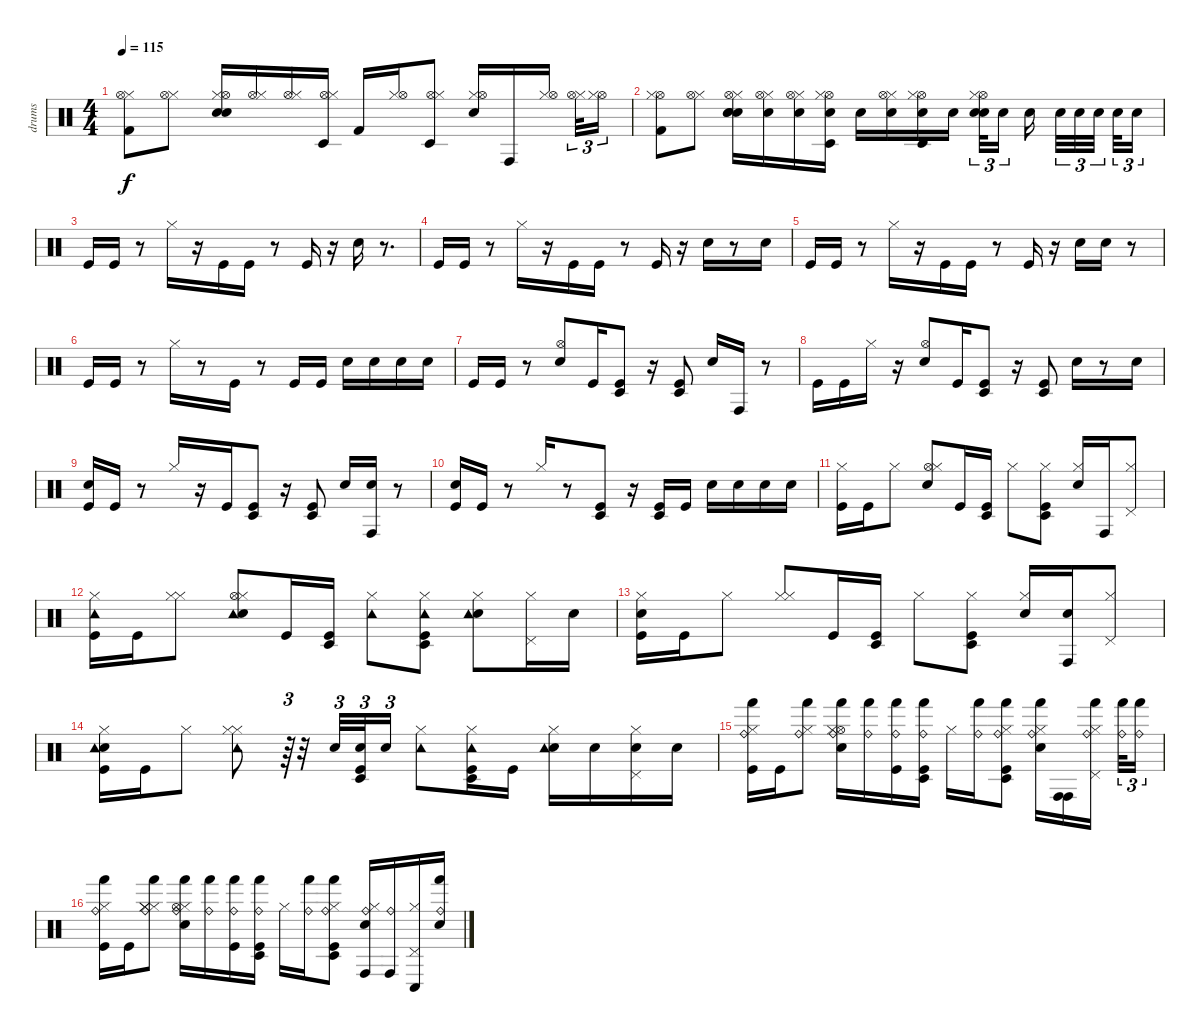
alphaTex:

\track ("drums" "drums") {instrument percussion}
\staff {score}
\articulation defaults
\ts (4 4)
\tempo 115
\clef neutral
\ks c
("Hi-Hat (closed)" "Hi-Hat (open)" "Kick (hit) 2").8{dy f} ("Hi-Hat (closed)" "Hi-Hat (open)").8 ("Hand Clap (hit)" "Snare (hit) 2" "Hi-Hat (closed)" "Hi-Hat (open)").16 ("Hi-Hat (open)" "Hi-Hat (closed)").16 ("Hi-Hat (open)" "Hi-Hat (closed)").16 ("Hi-Hat (open)" "Hi-Hat (closed)" "Timbale low (hit)").16 "Kick (hit) 2".16 ("Hi-Hat (closed)" "Hi-Hat (open)").16 ("Timbale low (hit)" "Hi-Hat (open)" "Hi-Hat (closed)").8 ("Hi-Hat (closed)" "Hand Clap (hit)" "Hi-Hat (open)").16 "Conga high (hit)".16 ("Hi-Hat (closed)" "Hi-Hat (open)").16 ("Hi-Hat (closed)" "Hi-Hat (open)").32{tu (3 2)} ("Hi-Hat (open)" "Hi-Hat (closed)").16{tu (3 2)} |
("Hi-Hat (open)" "Hi-Hat (closed)" "Kick (hit) 2").8 ("Hi-Hat (closed)" "Hi-Hat (open)").8 ("Electric Snare (hit)" "Hi-Hat (closed)" "Electric Snare (hit)" "Hi-Hat (open)" "Hand Clap (hit)").16 ("Hi-Hat (closed)" "Electric Snare (hit)" "Hi-Hat (open)").16 ("Hi-Hat (closed)" "Electric Snare (hit)" "Hi-Hat (open)").16 ("Hi-Hat (open)" "Electric Snare (hit)" "Hi-Hat (closed)" "Timbale low (hit)").16 "Electric Snare (hit)".16 ("Electric Snare (hit)" "Hi-Hat (closed)" "Hi-Hat (open)").16 ("Hi-Hat (open)" "Hi-Hat (closed)" "Electric Snare (hit)" "Timbale low (hit)").16 "Electric Snare (hit)".16 ("Hi-Hat (open)" "Hi-Hat (closed)" "Hand Clap (hit)" "Electric Snare (hit)").32{tu (3 2)} "Electric Snare (hit)".16{tu (3 2)} "Electric Snare (hit)".16 "Electric Snare (hit)".32{tu (3 2)} "Electric Snare (hit)".32{tu (3 2)} "Electric Snare (hit)".32{tu (3 2)} "Electric Snare (hit)".32{tu (3 2)} "Electric Snare (hit)".16{tu (3 2)} |
"Kick (hit)".16 "Kick (hit)".16 r.8 "Hi-Hat (closed)".16 r.16 "Kick (hit)".16 "Kick (hit)".16 r.8 "Kick (hit)".16 r.16 "Electric Snare (hit)".16 r.8{d} |
"Kick (hit)".16 "Kick (hit)".16 r.8 "Hi-Hat (closed)".16 r.16 "Kick (hit)".16 "Kick (hit)".16 r.8 "Kick (hit)".16 r.16 "Electric Snare (hit)".16 r.8 "Electric Snare (hit)".16 |
"Kick (hit)".16 "Kick (hit)".16 r.8 "Hi-Hat (closed)".16 r.16 "Kick (hit)".16 "Kick (hit)".16 r.8 "Kick (hit)".16 r.16 "Electric Snare (hit)".16 "Electric Snare (hit)".16 r.8 |
"Kick (hit)".16 "Kick (hit)".16 r.8 "Hi-Hat (closed)".16 r.8 "Kick (hit)".16 r.8 "Kick (hit)".16 "Kick (hit)".16 "Electric Snare (hit)".16 "Electric Snare (hit)".16 "Electric Snare (hit)".16 "Electric Snare (hit)".16 |
"Kick (hit)".16 "Kick (hit)".16 r.8 ("Hi-Hat (open)" "Electric Snare (hit)").8 "Kick (hit)".16 ("Kick (hit)" "Timbale low (hit)").8 r.16 ("Timbale low (hit)" "Kick (hit)").8 "Electric Snare (hit)".16 "Conga high (hit)".16 r.8 |
"Kick (hit)".16 "Kick (hit)".16 "Hi-Hat (closed)".16 r.16 ("Hi-Hat (open)" "Electric Snare (hit)").8 "Kick (hit)".16 ("Kick (hit)" "Timbale low (hit)").8 r.16 ("Kick (hit)" "Timbale low (hit)").8 "Electric Snare (hit)".16 r.8 "Electric Snare (hit)".16 |
("Electric Snare (hit)" "Kick (hit)").16 "Kick (hit)".16 r.8 "Hi-Hat (closed)".16 r.16 "Kick (hit)".16 ("Timbale low (hit)" "Kick (hit)").8 r.16 ("Kick (hit)" "Timbale low (hit)").8 "Electric Snare (hit)".16 ("Conga high (hit)" "Electric Snare (hit)").16 r.8 |
("Kick (hit)" "Electric Snare (hit)").16 "Kick (hit)".16 r.8 "Hi-Hat (closed)".16 r.8 ("Timbale low (hit)" "Kick (hit)").8 r.16 ("Kick (hit)" "Timbale low (hit)").16 "Kick (hit)".16 "Electric Snare (hit)".16 "Electric Snare (hit)".16 "Electric Snare (hit)".16 "Electric Snare (hit)".16 |
("Hi-Hat (closed)" "Kick (hit)").16 "Kick (hit)".16 "Hi-Hat (closed)".8 ("Electric Snare (hit)" "Hi-Hat (open)" "Hi-Hat (closed)").8 "Kick (hit)".16 ("Timbale low (hit)" "Kick (hit)").16 "Hi-Hat (closed)".8 ("Timbale low (hit)" "Hi-Hat (closed)" "Kick (hit)").8 ("Electric Snare (hit)" "Hi-Hat (closed)").16 "Conga high (hit)".16 ("Pedal Hi-Hat (hit)" "Hi-Hat (closed)").8 |
("Tambourine (hit)" "Kick (hit)" "Hi-Hat (closed)").16 "Kick (hit)".16 ("Hi-Hat (closed)" "Hi-Hat (closed)").8 ("Hi-Hat (open)" "Tambourine (hit)" "Electric Snare (hit)" "Hi-Hat (closed)").8 "Kick (hit)".16 ("Kick (hit)" "Timbale low (hit)").16 ("Tambourine (hit)" "Hi-Hat (closed)").8 ("Hi-Hat (closed)" "Kick (hit)" "Timbale low (hit)" "Tambourine (hit)").8 ("Electric Snare (hit)" "Hi-Hat (closed)" "Tambourine (hit)").8 ("Pedal Hi-Hat (hit)" "Hi-Hat (closed)").16 "Electric Snare (hit)".16 |
("Hi-Hat (closed)" "Electric Snare (hit)" "Kick (hit)").16 "Kick (hit)".16 "Hi-Hat (closed)".8 ("Hi-Hat (closed)" "Hi-Hat (closed)").8 "Kick (hit)".16 ("Kick (hit)" "Timbale low (hit)").16 "Hi-Hat (closed)".8 ("Hi-Hat (closed)" "Kick (hit)" "Timbale low (hit)").8 ("Electric Snare (hit)" "Hi-Hat (closed)").16 ("Conga high (hit)" "Electric Snare (hit)").16 ("Pedal Hi-Hat (hit)" "Hi-Hat (closed)").8 |
("Hi-Hat (closed)" "Kick (hit)" "Electric Snare (hit)" "Tambourine (hit)").16 "Kick (hit)".16 "Hi-Hat (closed)".8 ("Tambourine (hit)" "Hi-Hat (closed)" "Hi-Hat (closed)").8 r.64{tu (3 2)} r.32 "Electric Snare (hit)".32{tu (3 2)} ("Electric Snare (hit)" "Kick (hit)" "Timbale low (hit)").32{tu (3 2)} "Electric Snare (hit)".16{tu (3 2)} ("Tambourine (hit)" "Hi-Hat (closed)").8 ("Hi-Hat (closed)" "Tambourine (hit)" "Timbale low (hit)" "Kick (hit)").16 "Kick (hit)".16 ("Hi-Hat (closed)" "Electric Snare (hit)" "Tambourine (hit)").16 "Electric Snare (hit)".16 ("Pedal Hi-Hat (hit)" "Hi-Hat (closed)" "Electric Snare (hit)").16 "Electric Snare (hit)".16 |
("Kick (hit)" "Hi-Hat (closed)" "Ride (bell)" "Hand (hit)").16 "Kick (hit)".16 ("Hand (hit)" "Hi-Hat (closed)" "Ride (bell)").8 ("Hi-Hat (open)" "Hand (hit)" "Ride (bell)" "Electric Snare (hit)" "Hi-Hat (closed)").16 ("Hand (hit)" "Ride (bell)").16 ("Hand (hit)" "Kick (hit)" "Ride (bell)").16 ("Hand (hit)" "Ride (bell)" "Kick (hit)" "Timbale low (hit)").16 "Hi-Hat (closed)".16 ("Ride (bell)" "Hand (hit)").16 ("Kick (hit)" "Timbale low (hit)" "Hi-Hat (closed)" "Ride (bell)" "Hand (hit)").8 ("Electric Snare (hit)" "Hi-Hat (closed)" "Ride (bell)" "Hand (hit)").16 ("Conga high (hit)" "Conga high (hit)").16 ("Ride (bell)" "Hi-Hat (closed)" "Pedal Hi-Hat (hit)" "Hand (hit)").16 ("Hand (hit)" "Ride (bell)").32{tu (3 2)} ("Ride (bell)" "Hand (hit)").16{tu (3 2)} |
("Hand (hit)" "Kick (hit)" "Hi-Hat (closed)" "Ride (bell)").16 "Kick (hit)".16 ("Hand (hit)" "Hi-Hat (closed)" "Ride (bell)" "Hi-Hat (closed)" "Hi-Hat (closed)").8 ("Hi-Hat (closed)" "Ride (bell)" "Hand (hit)" "Electric Snare (hit)" "Hi-Hat (open)").16 ("Ride (bell)" "Hand (hit)").16 ("Kick (hit)" "Ride (bell)" "Hand (hit)").16 ("Kick (hit)" "Timbale low (hit)" "Ride (bell)" "Hand (hit)").16 "Hi-Hat (closed)".16 ("Ride (bell)" "Hand (hit)").16 ("Timbale low (hit)" "Hand (hit)" "Kick (hit)" "Hi-Hat (closed)" "Ride (bell)").8 ("Conga high (hit)" "Ride (bell)" "Electric Snare (hit)" "Hi-Hat (closed)").16 ("Conga high (hit)" "Ride (bell)").16 ("Conga low (hit)" "Hi-Hat (closed)" "Pedal Hi-Hat (hit)").16 ("Electric Snare (hit)" "Hand (hit)" "Ride (bell)").16
